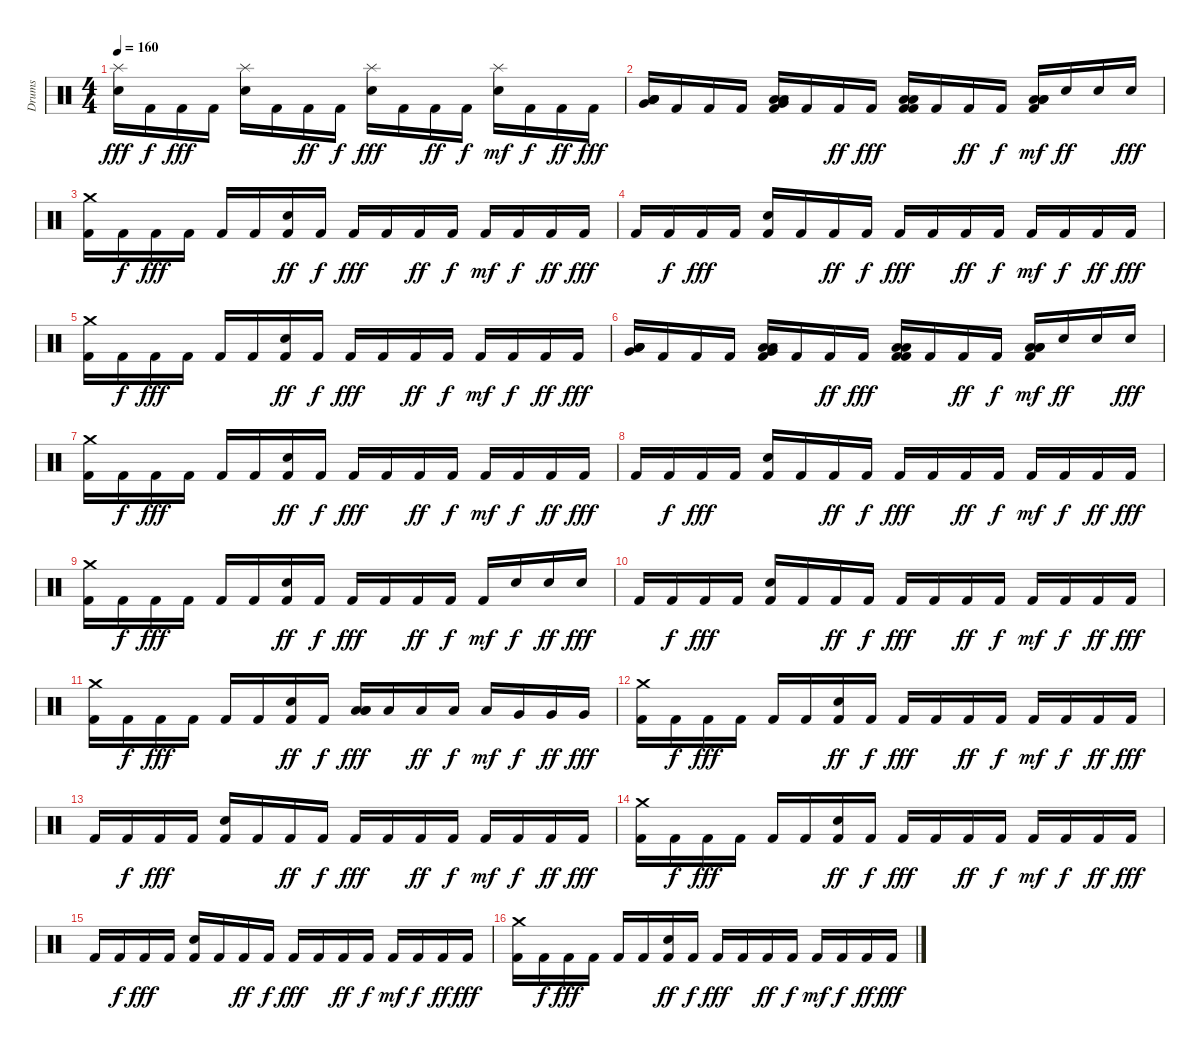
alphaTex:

\track ("Drums" "Drums") {instrument percussion}
\staff {score}
\articulation defaults
\ts (4 4)
\tempo 160
\clef neutral
\ks c
("Splash (hit)" "Electric Snare (hit)").16{dy fff} "Kick (hit) 2".16{dy f} "Kick (hit) 2".16{dy fff} "Kick (hit) 2".16 ("Splash (hit)" "Electric Snare (hit)").16 "Kick (hit) 2".16 "Kick (hit) 2".16{dy ff} "Kick (hit) 2".16{dy f} ("Splash (hit)" "Electric Snare (hit)").16{dy fff} "Kick (hit) 2".16 "Kick (hit) 2".16{dy ff} "Kick (hit) 2".16{dy f} ("Splash (hit)" "Electric Snare (hit)").16{dy mf} "Kick (hit) 2".16{dy f} "Kick (hit) 2".16{dy ff} "Kick (hit) 2".16{dy fff} |
("Low Floor Tom (hit)" "Low Tom (hit)" "Low Floor Tom (hit)" "Very Low Tom (hit)").16 "Kick (hit) 2".16 "Kick (hit) 2".16 "Kick (hit) 2".16 ("Low Floor Tom (hit)" "Kick (hit) 2" "Low Floor Tom (hit)" "Very Low Tom (hit)").16 "Kick (hit) 2".16 "Kick (hit) 2".16{dy ff} "Kick (hit) 2".16{dy fff} ("Low Floor Tom (hit)" "Kick (hit) 2" "Low Floor Tom (hit)" "Kick (hit) 2").16 "Kick (hit) 2".16 "Kick (hit) 2".16{dy ff} "Kick (hit) 2".16{dy f} ("Low Floor Tom (hit)" "Kick (hit) 2" "Low Floor Tom (hit)" "Low Tom (hit)").16{dy mf} "Electric Snare (hit)".16{dy ff} "Electric Snare (hit)".16 "Electric Snare (hit)".16{dy fff} |
("Kick (hit) 2" "Crash medium (hit)").16 "Kick (hit) 2".16{dy f} "Kick (hit) 2".16{dy fff} "Kick (hit) 2".16 "Kick (hit) 2".16 "Kick (hit) 2".16 ("Kick (hit) 2" "Electric Snare (hit)").16{dy ff} "Kick (hit) 2".16{dy f} "Kick (hit) 2".16{dy fff} "Kick (hit) 2".16 "Kick (hit) 2".16{dy ff} "Kick (hit) 2".16{dy f} "Kick (hit) 2".16{dy mf} "Kick (hit) 2".16{dy f} "Kick (hit) 2".16{dy ff} "Kick (hit) 2".16{dy fff} |
"Kick (hit) 2".16 "Kick (hit) 2".16{dy f} "Kick (hit) 2".16{dy fff} "Kick (hit) 2".16 ("Kick (hit) 2" "Electric Snare (hit)").16 "Kick (hit) 2".16 "Kick (hit) 2".16{dy ff} "Kick (hit) 2".16{dy f} "Kick (hit) 2".16{dy fff} "Kick (hit) 2".16 "Kick (hit) 2".16{dy ff} "Kick (hit) 2".16{dy f} "Kick (hit) 2".16{dy mf} "Kick (hit) 2".16{dy f} "Kick (hit) 2".16{dy ff} "Kick (hit) 2".16{dy fff} |
("Kick (hit) 2" "Crash medium (hit)").16 "Kick (hit) 2".16{dy f} "Kick (hit) 2".16{dy fff} "Kick (hit) 2".16 "Kick (hit) 2".16 "Kick (hit) 2".16 ("Kick (hit) 2" "Electric Snare (hit)").16{dy ff} "Kick (hit) 2".16{dy f} "Kick (hit) 2".16{dy fff} "Kick (hit) 2".16 "Kick (hit) 2".16{dy ff} "Kick (hit) 2".16{dy f} "Kick (hit) 2".16{dy mf} "Kick (hit) 2".16{dy f} "Kick (hit) 2".16{dy ff} "Kick (hit) 2".16{dy fff} |
("Low Floor Tom (hit)" "Low Tom (hit)" "Low Floor Tom (hit)" "Very Low Tom (hit)").16{volume 13} "Kick (hit) 2".16 "Kick (hit) 2".16 "Kick (hit) 2".16 ("Low Floor Tom (hit)" "Kick (hit) 2" "Low Floor Tom (hit)" "Very Low Tom (hit)").16 "Kick (hit) 2".16 "Kick (hit) 2".16{dy ff} "Kick (hit) 2".16{dy fff} ("Low Floor Tom (hit)" "Kick (hit) 2" "Low Floor Tom (hit)" "Kick (hit) 2").16 "Kick (hit) 2".16 "Kick (hit) 2".16{dy ff} "Kick (hit) 2".16{dy f} ("Low Floor Tom (hit)" "Kick (hit) 2" "Low Floor Tom (hit)" "Low Tom (hit)").16{dy mf} "Electric Snare (hit)".16{dy ff} "Electric Snare (hit)".16 "Electric Snare (hit)".16{dy fff} |
("Kick (hit) 2" "Crash medium (hit)").16 "Kick (hit) 2".16{dy f} "Kick (hit) 2".16{dy fff} "Kick (hit) 2".16 "Kick (hit) 2".16 "Kick (hit) 2".16 ("Kick (hit) 2" "Electric Snare (hit)").16{dy ff} "Kick (hit) 2".16{dy f} "Kick (hit) 2".16{dy fff} "Kick (hit) 2".16 "Kick (hit) 2".16{dy ff} "Kick (hit) 2".16{dy f} "Kick (hit) 2".16{dy mf} "Kick (hit) 2".16{dy f} "Kick (hit) 2".16{dy ff} "Kick (hit) 2".16{dy fff} |
"Kick (hit) 2".16{volume 9} "Kick (hit) 2".16{dy f} "Kick (hit) 2".16{dy fff} "Kick (hit) 2".16 ("Kick (hit) 2" "Electric Snare (hit)").16 "Kick (hit) 2".16 "Kick (hit) 2".16{dy ff} "Kick (hit) 2".16{dy f} "Kick (hit) 2".16{dy fff} "Kick (hit) 2".16 "Kick (hit) 2".16{dy ff} "Kick (hit) 2".16{dy f} "Kick (hit) 2".16{dy mf} "Kick (hit) 2".16{dy f} "Kick (hit) 2".16{dy ff} "Kick (hit) 2".16{dy fff} |
("Kick (hit) 2" "Crash medium (hit)").16 "Kick (hit) 2".16{dy f} "Kick (hit) 2".16{dy fff} "Kick (hit) 2".16 "Kick (hit) 2".16 "Kick (hit) 2".16 ("Kick (hit) 2" "Electric Snare (hit)").16{dy ff} "Kick (hit) 2".16{dy f} "Kick (hit) 2".16{dy fff} "Kick (hit) 2".16 "Kick (hit) 2".16{dy ff} "Kick (hit) 2".16{dy f} "Kick (hit) 2".16{dy mf} "Electric Snare (hit)".16{dy f} "Electric Snare (hit)".16{dy ff} "Electric Snare (hit)".16{dy fff} |
"Kick (hit) 2".16{volume 4} "Kick (hit) 2".16{dy f} "Kick (hit) 2".16{dy fff} "Kick (hit) 2".16 ("Kick (hit) 2" "Electric Snare (hit)").16 "Kick (hit) 2".16 "Kick (hit) 2".16{dy ff} "Kick (hit) 2".16{dy f} "Kick (hit) 2".16{dy fff} "Kick (hit) 2".16 "Kick (hit) 2".16{dy ff} "Kick (hit) 2".16{dy f} "Kick (hit) 2".16{dy mf} "Kick (hit) 2".16{dy f} "Kick (hit) 2".16{dy ff} "Kick (hit) 2".16{dy fff} |
("Kick (hit) 2" "Crash medium (hit)").16 "Kick (hit) 2".16{dy f} "Kick (hit) 2".16{dy fff} "Kick (hit) 2".16 "Kick (hit) 2".16 "Kick (hit) 2".16 ("Kick (hit) 2" "Electric Snare (hit)").16{dy ff} "Kick (hit) 2".16{dy f} ("Low Floor Tom (hit)" "Low Tom (hit)" "Low Floor Tom (hit)").16{dy fff} "Low Tom (hit)".16 "Low Tom (hit)".16{dy ff} "Low Tom (hit)".16{dy f} "Low Tom (hit)".16{dy mf} "Very Low Tom (hit)".16{dy f} "Very Low Tom (hit)".16{dy ff} "Very Low Tom (hit)".16{dy fff} |
("Kick (hit) 2" "Crash medium (hit)").16{volume 3} "Kick (hit) 2".16{dy f} "Kick (hit) 2".16{dy fff} "Kick (hit) 2".16 "Kick (hit) 2".16 "Kick (hit) 2".16 ("Kick (hit) 2" "Electric Snare (hit)").16{dy ff} "Kick (hit) 2".16{dy f} "Kick (hit) 2".16{dy fff} "Kick (hit) 2".16 "Kick (hit) 2".16{dy ff} "Kick (hit) 2".16{dy f} "Kick (hit) 2".16{dy mf} "Kick (hit) 2".16{dy f} "Kick (hit) 2".16{dy ff} "Kick (hit) 2".16{dy fff} |
"Kick (hit) 2".16 "Kick (hit) 2".16{dy f} "Kick (hit) 2".16{dy fff} "Kick (hit) 2".16 ("Kick (hit) 2" "Electric Snare (hit)").16 "Kick (hit) 2".16 "Kick (hit) 2".16{dy ff} "Kick (hit) 2".16{dy f} "Kick (hit) 2".16{dy fff} "Kick (hit) 2".16 "Kick (hit) 2".16{dy ff} "Kick (hit) 2".16{dy f} "Kick (hit) 2".16{dy mf} "Kick (hit) 2".16{dy f} "Kick (hit) 2".16{dy ff} "Kick (hit) 2".16{dy fff} |
("Kick (hit) 2" "Crash medium (hit)").16{volume 2} "Kick (hit) 2".16{dy f} "Kick (hit) 2".16{dy fff} "Kick (hit) 2".16 "Kick (hit) 2".16 "Kick (hit) 2".16 ("Kick (hit) 2" "Electric Snare (hit)").16{dy ff} "Kick (hit) 2".16{dy f} "Kick (hit) 2".16{dy fff} "Kick (hit) 2".16 "Kick (hit) 2".16{dy ff} "Kick (hit) 2".16{dy f} "Kick (hit) 2".16{dy mf} "Kick (hit) 2".16{dy f} "Kick (hit) 2".16{dy ff} "Kick (hit) 2".16{dy fff} |
"Kick (hit) 2".16 "Kick (hit) 2".16{dy f} "Kick (hit) 2".16{dy fff} "Kick (hit) 2".16 ("Kick (hit) 2" "Electric Snare (hit)").16 "Kick (hit) 2".16 "Kick (hit) 2".16{dy ff} "Kick (hit) 2".16{dy f} "Kick (hit) 2".16{dy fff} "Kick (hit) 2".16 "Kick (hit) 2".16{dy ff} "Kick (hit) 2".16{dy f} "Kick (hit) 2".16{dy mf} "Kick (hit) 2".16{dy f} "Kick (hit) 2".16{dy ff} "Kick (hit) 2".16{dy fff} |
("Kick (hit) 2" "Crash medium (hit)").16{volume 0} "Kick (hit) 2".16{dy f} "Kick (hit) 2".16{dy fff} "Kick (hit) 2".16 "Kick (hit) 2".16 "Kick (hit) 2".16 ("Kick (hit) 2" "Electric Snare (hit)").16{dy ff} "Kick (hit) 2".16{dy f} "Kick (hit) 2".16{dy fff} "Kick (hit) 2".16 "Kick (hit) 2".16{dy ff} "Kick (hit) 2".16{dy f} "Kick (hit) 2".16{dy mf} "Kick (hit) 2".16{dy f} "Kick (hit) 2".16{dy ff} "Kick (hit) 2".16{dy fff}
